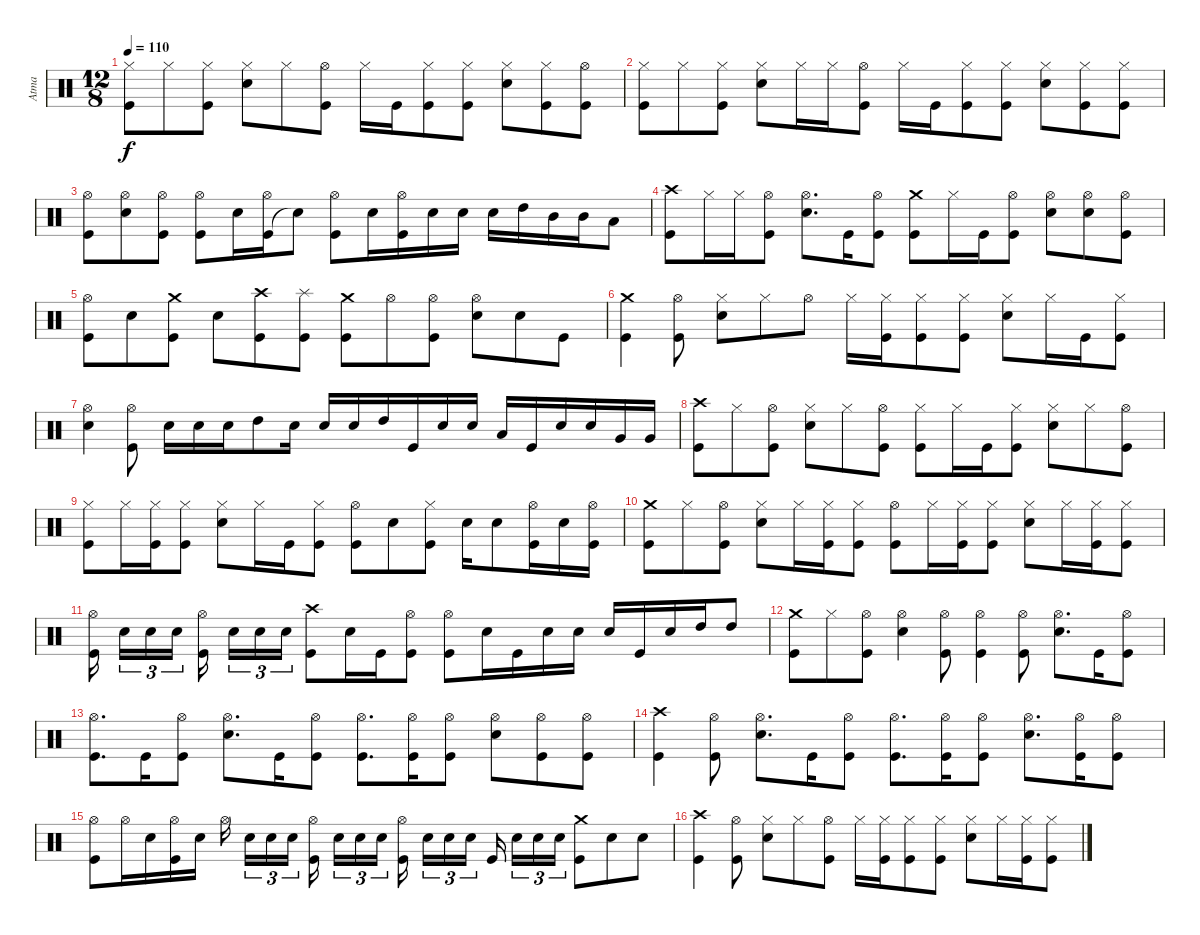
\track ("Atma" "Atma") {instrument percussion}
\staff {score}
\articulation defaults
\ts (12 8)
\tempo 110
\clef neutral
\ks c
("Kick (hit)" "Hi-Hat (closed)").8{dy f} "Hi-Hat (closed)".8 ("Kick (hit)" "Hi-Hat (closed)").8 ("Snare (hit) 2" "Hi-Hat (closed)").8 "Hi-Hat (closed)".8 ("Kick (hit)" "Hi-Hat (open)").8 "Hi-Hat (closed)".16 "Kick (hit)".16 ("Kick (hit)" "Hi-Hat (closed)").8 ("Kick (hit)" "Hi-Hat (closed)").8 ("Snare (hit) 2" "Hi-Hat (closed)").8 ("Kick (hit)" "Hi-Hat (closed)").8 ("Kick (hit)" "Hi-Hat (open)").8 |
("Kick (hit)" "Hi-Hat (closed)").8 "Hi-Hat (closed)".8 ("Kick (hit)" "Hi-Hat (closed)").8 ("Snare (hit) 2" "Hi-Hat (closed)").8 "Hi-Hat (closed)".16 "Hi-Hat (closed)".16 ("Kick (hit)" "Hi-Hat (open)").8 "Hi-Hat (closed)".16 "Kick (hit)".16 ("Kick (hit)" "Hi-Hat (closed)").8 ("Kick (hit)" "Hi-Hat (closed)").8 ("Snare (hit) 2" "Hi-Hat (closed)").8 ("Kick (hit)" "Hi-Hat (closed)").8 ("Kick (hit)" "Hi-Hat (closed)").8 |
("Kick (hit)" "Hi-Hat (open)").8 ("Snare (hit) 2" "Hi-Hat (open)").8 ("Kick (hit)" "Hi-Hat (open)").8 ("Kick (hit)" "Hi-Hat (open)").8 "Snare (hit) 2".16 ("Kick (hit)" "Hi-Hat (open)").16 "Snare (hit)"{t}.8 ("Kick (hit)" "Hi-Hat (open)").8 "Snare (hit) 2".16 ("Kick (hit)" "Hi-Hat (open)").16 "Snare (hit) 2".16 "Snare (hit) 2".16 "Snare (hit) 2".16 "High Tom (hit)".16 "Mid Tom (hit)".16 "Mid Tom (hit)".16 "Low Tom (hit)".8 |
("Kick (hit)" "Crash high (hit)").8 "Hi-Hat (closed)".16 "Hi-Hat (closed)".16 ("Kick (hit)" "Hi-Hat (open)").8 ("Snare (hit) 2" "Hi-Hat (open)").8{d} "Kick (hit)".16 ("Kick (hit)" "Hi-Hat (open)").8 ("Kick (hit)" "Crash medium (hit)").8 "Hi-Hat (closed)".16 "Kick (hit)".16 ("Kick (hit)" "Hi-Hat (open)").8 ("Snare (hit) 2" "Hi-Hat (open)").8 ("Snare (hit) 2" "Hi-Hat (open)").8 ("Kick (hit)" "Hi-Hat (open)").8 |
("Kick (hit)" "Hi-Hat (open)").8 "Snare (hit) 2".8 ("Kick (hit)" "Crash medium (hit)").8 "Snare (hit) 2".8 ("Kick (hit)" "Crash high (hit)").8 ("Kick (hit)" "Splash (hit)").8 ("Kick (hit)" "Crash medium (hit)").8 "Hi-Hat (open)".8 ("Kick (hit)" "Hi-Hat (open)").8 ("Snare (hit) 2" "Hi-Hat (open)").8 "Snare (hit) 2".8 "Kick (hit)".8 |
("Kick (hit)" "Crash medium (hit)").4 ("Kick (hit)" "Hi-Hat (open)").8 ("Snare (hit) 2" "Hi-Hat (closed)").8 "Hi-Hat (closed)".8 "Hi-Hat (open)".8 "Hi-Hat (closed)".16 ("Kick (hit)" "Hi-Hat (closed)").16 ("Kick (hit)" "Hi-Hat (closed)").8 ("Kick (hit)" "Hi-Hat (closed)").8 ("Snare (hit) 2" "Hi-Hat (closed)").8 "Hi-Hat (closed)".16 "Kick (hit)".16 ("Kick (hit)" "Hi-Hat (closed)").8 |
("Snare (hit) 2" "Hi-Hat (open)").4 ("Kick (hit)" "Hi-Hat (open)").8 "Snare (hit) 2".16 "Snare (hit) 2".16 "Snare (hit) 2".16 "High Tom (hit)".8 "Snare (hit) 2".16 "Snare (hit) 2".16 "Snare (hit) 2".16 "High Tom (hit)".16 "Kick (hit)".16 "Snare (hit) 2".16 "Snare (hit) 2".16 "Low Tom (hit)".16 "Kick (hit)".16 "Snare (hit) 2".16 "Snare (hit) 2".16 "Very Low Tom (hit)".16 "Very Low Tom (hit)".16 |
("Kick (hit)" "Crash high (hit)").8 "Hi-Hat (closed)".8 ("Kick (hit)" "Hi-Hat (open)").8 ("Snare (hit) 2" "Hi-Hat (closed)").8 "Hi-Hat (closed)".8 ("Kick (hit)" "Hi-Hat (open)").8 ("Kick (hit)" "Hi-Hat (closed)").8 "Hi-Hat (closed)".16 "Kick (hit)".16 ("Kick (hit)" "Hi-Hat (closed)").8 ("Snare (hit) 2" "Hi-Hat (closed)").8 "Hi-Hat (closed)".8 ("Kick (hit)" "Hi-Hat (open)").8 |
("Kick (hit)" "Hi-Hat (closed)").8 "Hi-Hat (closed)".16 ("Kick (hit)" "Hi-Hat (closed)").16 ("Kick (hit)" "Hi-Hat (closed)").8 ("Snare (hit) 2" "Hi-Hat (closed)").8 "Hi-Hat (closed)".16 "Kick (hit)".16 ("Kick (hit)" "Hi-Hat (closed)").8 ("Kick (hit)" "Hi-Hat (open)").8 "Snare (hit) 2".8 ("Kick (hit)" "Hi-Hat (closed)").8 "Snare (hit) 2".16 "Snare (hit) 2".8 ("Kick (hit)" "Hi-Hat (open)").16 "Snare (hit) 2".16 ("Kick (hit)" "Hi-Hat (open)").16 |
("Kick (hit)" "Crash medium (hit)").8 "Hi-Hat (closed)".8 ("Kick (hit)" "Hi-Hat (open)").8 ("Snare (hit) 2" "Hi-Hat (closed)").8 "Hi-Hat (closed)".16 ("Kick (hit)" "Hi-Hat (closed)").16 ("Kick (hit)" "Hi-Hat (closed)").8 ("Kick (hit)" "Hi-Hat (open)").8 "Hi-Hat (closed)".16 ("Kick (hit)" "Hi-Hat (closed)").16 ("Kick (hit)" "Hi-Hat (closed)").8 ("Snare (hit) 2" "Hi-Hat (closed)").8 "Hi-Hat (closed)".16 ("Kick (hit)" "Hi-Hat (closed)").16 ("Kick (hit)" "Hi-Hat (closed)").8 |
("Kick (hit)" "Hi-Hat (open)").16 "Snare (hit) 2".16{tu (3 2)} "Snare (hit) 2".16{tu (3 2)} "Snare (hit) 2".16{tu (3 2)} ("Kick (hit)" "Hi-Hat (open)").16 "Snare (hit) 2".16{tu (3 2)} "Snare (hit) 2".16{tu (3 2)} "Snare (hit) 2".16{tu (3 2)} ("Kick (hit)" "Crash high (hit)").8 "Snare (hit) 2".16 "Kick (hit)".16 ("Kick (hit)" "Hi-Hat (open)").8 ("Kick (hit)" "Hi-Hat (open)").8 "Snare (hit) 2".16 "Kick (hit)".16 "Snare (hit) 2".16 "Snare (hit) 2".16 "Snare (hit) 2".16 "Kick (hit)".16 "Snare (hit) 2".16 "High Tom (hit)".16 "High Tom (hit)".8 |
("Kick (hit)" "Crash medium (hit)").8 "Hi-Hat (closed)".8 ("Kick (hit)" "Hi-Hat (open)").8 ("Snare (hit) 2" "Hi-Hat (open)").4 ("Kick (hit)" "Hi-Hat (open)").8 ("Kick (hit)" "Hi-Hat (open)").4 ("Kick (hit)" "Hi-Hat (open)").8 ("Snare (hit) 2" "Hi-Hat (open)").8{d} "Kick (hit)".16 ("Kick (hit)" "Hi-Hat (open)").8 |
("Kick (hit)" "Hi-Hat (open)").8{d} "Kick (hit)".16 ("Kick (hit)" "Hi-Hat (open)").8 ("Snare (hit) 2" "Hi-Hat (open)").8{d} "Kick (hit)".16 ("Kick (hit)" "Hi-Hat (open)").8 ("Kick (hit)" "Hi-Hat (open)").8{d} ("Kick (hit)" "Hi-Hat (open)").16 ("Kick (hit)" "Hi-Hat (open)").8 ("Snare (hit) 2" "Hi-Hat (open)").8 ("Kick (hit)" "Hi-Hat (open)").8 ("Kick (hit)" "Hi-Hat (open)").8 |
("Kick (hit)" "Crash high (hit)").4 ("Kick (hit)" "Hi-Hat (open)").8 ("Snare (hit) 2" "Hi-Hat (open)").8{d} "Kick (hit)".16 ("Kick (hit)" "Hi-Hat (open)").8 ("Kick (hit)" "Hi-Hat (open)").8{d} ("Kick (hit)" "Hi-Hat (open)").16 ("Kick (hit)" "Hi-Hat (open)").8 ("Snare (hit) 2" "Hi-Hat (open)").8{d} ("Kick (hit)" "Hi-Hat (open)").16 ("Kick (hit)" "Hi-Hat (open)").8 |
("Kick (hit)" "Hi-Hat (open)").8 "Hi-Hat (open)".16 "Snare (hit) 2".16 ("Kick (hit)" "Hi-Hat (open)").16 "Snare (hit) 2".16 "Hi-Hat (open)".16 "Snare (hit) 2".16{tu (3 2)} "Snare (hit) 2".16{tu (3 2)} "Snare (hit) 2".16{tu (3 2)} ("Kick (hit)" "Hi-Hat (open)").16 "Snare (hit) 2".16{tu (3 2)} "Snare (hit) 2".16{tu (3 2)} "Snare (hit) 2".16{tu (3 2)} ("Kick (hit)" "Hi-Hat (open)").16 "Snare (hit) 2".16{tu (3 2)} "Snare (hit) 2".16{tu (3 2)} "Snare (hit) 2".16{tu (3 2)} "Kick (hit)".16 "Snare (hit) 2".16{tu (3 2)} "Snare (hit) 2".16{tu (3 2)} "Snare (hit) 2".16{tu (3 2)} ("Kick (hit)" "Crash medium (hit)").8 "Snare (hit) 2".8 "Snare (hit) 2".8 |
("Kick (hit)" "Crash high (hit)").4 ("Kick (hit)" "Hi-Hat (open)").8 ("Snare (hit) 2" "Hi-Hat (closed)").8 "Hi-Hat (closed)".8 ("Kick (hit)" "Hi-Hat (open)").8 "Hi-Hat (closed)".16 ("Kick (hit)" "Hi-Hat (closed)").16 ("Kick (hit)" "Hi-Hat (closed)").8 ("Kick (hit)" "Hi-Hat (closed)").8 ("Snare (hit) 2" "Hi-Hat (closed)").8 "Hi-Hat (closed)".16 ("Kick (hit)" "Hi-Hat (closed)").16 ("Kick (hit)" "Hi-Hat (closed)").8
